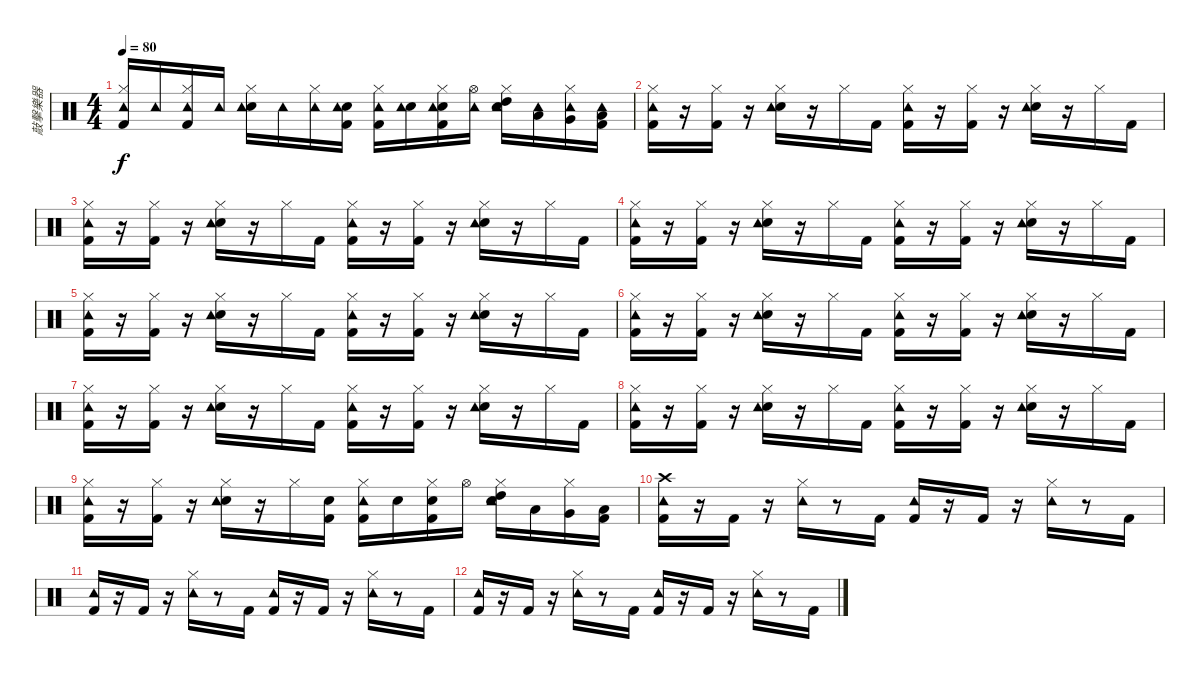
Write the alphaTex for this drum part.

\track ("敲擊樂器" "敲擊樂器") {instrument percussion}
\staff {score}
\articulation defaults
\ts (4 4)
\tempo 80
\clef neutral
\ks c
("Kick (hit) 2" "Hi-Hat (closed)" "Tambourine (hit)").16{dy f} "Tambourine (hit)".16 ("Kick (hit) 2" "Hi-Hat (closed)" "Tambourine (hit)").16 "Tambourine (hit)".16 ("Snare (hit) 2" "Hi-Hat (closed)" "Tambourine (hit)").16 "Tambourine (hit)".16 ("Hi-Hat (closed)" "Tambourine (hit)").16 ("Kick (hit) 2" "Snare (hit) 2" "Tambourine (hit)").16 ("Kick (hit) 2" "Hi-Hat (closed)" "Tambourine (hit)").16 ("Electric Snare (hit)" "Tambourine (hit)").16 ("Kick (hit) 2" "Electric Snare (hit)" "Hi-Hat (closed)" "Tambourine (hit)").16 ("Hi-Hat (open)" "Tambourine (hit)").16 ("High Tom (hit)" "Snare (hit) 2" "Hi-Hat (closed)" "Tambourine (hit)").16 ("Low Tom (hit)" "Tambourine (hit)").16 ("Very Low Tom (hit)" "Hi-Hat (closed)" "Tambourine (hit)").16 ("Kick (hit) 2" "Low Floor Tom (hit)" "Tambourine (hit)").16 |
("Kick (hit) 2" "Hi-Hat (closed)" "Tambourine (hit)").16 r.16 ("Kick (hit) 2" "Hi-Hat (closed)").16 r.16 ("Snare (hit) 2" "Hi-Hat (closed)" "Tambourine (hit)").16 r.16 "Hi-Hat (closed)".16 "Kick (hit) 2".16 ("Kick (hit) 2" "Hi-Hat (closed)" "Tambourine (hit)").16 r.16 ("Kick (hit) 2" "Hi-Hat (closed)").16 r.16 ("Snare (hit) 2" "Hi-Hat (closed)" "Tambourine (hit)").16 r.16 "Hi-Hat (closed)".16 "Kick (hit) 2".16 |
("Kick (hit) 2" "Hi-Hat (closed)" "Tambourine (hit)").16 r.16 ("Kick (hit) 2" "Hi-Hat (closed)").16 r.16 ("Snare (hit) 2" "Hi-Hat (closed)" "Tambourine (hit)").16 r.16 "Hi-Hat (closed)".16 "Kick (hit) 2".16 ("Kick (hit) 2" "Hi-Hat (closed)" "Tambourine (hit)").16 r.16 ("Kick (hit) 2" "Hi-Hat (closed)").16 r.16 ("Snare (hit) 2" "Hi-Hat (closed)" "Tambourine (hit)").16 r.16 "Hi-Hat (closed)".16 "Kick (hit) 2".16 |
("Kick (hit) 2" "Hi-Hat (closed)" "Tambourine (hit)").16 r.16 ("Kick (hit) 2" "Hi-Hat (closed)").16 r.16 ("Snare (hit) 2" "Hi-Hat (closed)" "Tambourine (hit)").16 r.16 "Hi-Hat (closed)".16 "Kick (hit) 2".16 ("Kick (hit) 2" "Hi-Hat (closed)" "Tambourine (hit)").16 r.16 ("Kick (hit) 2" "Hi-Hat (closed)").16 r.16 ("Snare (hit) 2" "Hi-Hat (closed)" "Tambourine (hit)").16 r.16 "Hi-Hat (closed)".16 "Kick (hit) 2".16 |
("Kick (hit) 2" "Hi-Hat (closed)" "Tambourine (hit)").16 r.16 ("Kick (hit) 2" "Hi-Hat (closed)").16 r.16 ("Snare (hit) 2" "Hi-Hat (closed)" "Tambourine (hit)").16 r.16 "Hi-Hat (closed)".16 "Kick (hit) 2".16 ("Kick (hit) 2" "Hi-Hat (closed)" "Tambourine (hit)").16 r.16 ("Kick (hit) 2" "Hi-Hat (closed)").16 r.16 ("Snare (hit) 2" "Hi-Hat (closed)" "Tambourine (hit)").16 r.16 "Hi-Hat (closed)".16 "Kick (hit) 2".16 |
("Kick (hit) 2" "Hi-Hat (closed)" "Tambourine (hit)").16 r.16 ("Kick (hit) 2" "Hi-Hat (closed)").16 r.16 ("Snare (hit) 2" "Hi-Hat (closed)" "Tambourine (hit)").16 r.16 "Hi-Hat (closed)".16 "Kick (hit) 2".16 ("Kick (hit) 2" "Hi-Hat (closed)" "Tambourine (hit)").16 r.16 ("Kick (hit) 2" "Hi-Hat (closed)").16 r.16 ("Snare (hit) 2" "Hi-Hat (closed)" "Tambourine (hit)").16 r.16 "Hi-Hat (closed)".16 "Kick (hit) 2".16 |
("Kick (hit) 2" "Hi-Hat (closed)" "Tambourine (hit)").16 r.16 ("Kick (hit) 2" "Hi-Hat (closed)").16 r.16 ("Snare (hit) 2" "Hi-Hat (closed)" "Tambourine (hit)").16 r.16 "Hi-Hat (closed)".16 "Kick (hit) 2".16 ("Kick (hit) 2" "Hi-Hat (closed)" "Tambourine (hit)").16 r.16 ("Kick (hit) 2" "Hi-Hat (closed)").16 r.16 ("Snare (hit) 2" "Hi-Hat (closed)" "Tambourine (hit)").16 r.16 "Hi-Hat (closed)".16 "Kick (hit) 2".16 |
("Kick (hit) 2" "Hi-Hat (closed)" "Tambourine (hit)").16 r.16 ("Kick (hit) 2" "Hi-Hat (closed)").16 r.16 ("Snare (hit) 2" "Hi-Hat (closed)" "Tambourine (hit)").16 r.16 "Hi-Hat (closed)".16 "Kick (hit) 2".16 ("Kick (hit) 2" "Hi-Hat (closed)" "Tambourine (hit)").16 r.16 ("Kick (hit) 2" "Hi-Hat (closed)").16 r.16 ("Snare (hit) 2" "Hi-Hat (closed)" "Tambourine (hit)").16 r.16 "Hi-Hat (closed)".16 "Kick (hit) 2".16 |
("Kick (hit) 2" "Hi-Hat (closed)" "Tambourine (hit)").16 r.16 ("Kick (hit) 2" "Hi-Hat (closed)").16 r.16 ("Snare (hit) 2" "Hi-Hat (closed)" "Tambourine (hit)").16 r.16 "Hi-Hat (closed)".16 ("Kick (hit) 2" "Snare (hit) 2").16 ("Kick (hit) 2" "Hi-Hat (closed)" "Tambourine (hit)").16 "Electric Snare (hit)".16 ("Kick (hit) 2" "Electric Snare (hit)" "Hi-Hat (closed)").16 "Hi-Hat (open)".16 ("High Tom (hit)" "Snare (hit) 2" "Hi-Hat (closed)" "Tambourine (hit)").16 "Low Tom (hit)".16 ("Very Low Tom (hit)" "Hi-Hat (closed)").16 ("Kick (hit) 2" "Low Floor Tom (hit)").16 |
("Kick (hit) 2" "Crash high (hit)" "Tambourine (hit)").16 r.16 "Kick (hit) 2".16 r.16 ("Hi-Hat (closed)" "Tambourine (hit)").16 r.8 "Kick (hit) 2".16 ("Kick (hit) 2" "Tambourine (hit)").16 r.16 "Kick (hit) 2".16 r.16 ("Hi-Hat (closed)" "Tambourine (hit)").16 r.8 "Kick (hit) 2".16 |
("Kick (hit) 2" "Tambourine (hit)").16 r.16 "Kick (hit) 2".16 r.16 ("Hi-Hat (closed)" "Tambourine (hit)").16 r.8 "Kick (hit) 2".16 ("Kick (hit) 2" "Tambourine (hit)").16 r.16 "Kick (hit) 2".16 r.16 ("Hi-Hat (closed)" "Tambourine (hit)").16 r.8 "Kick (hit) 2".16 |
("Kick (hit) 2" "Tambourine (hit)").16 r.16 "Kick (hit) 2".16 r.16 ("Hi-Hat (closed)" "Tambourine (hit)").16 r.8 "Kick (hit) 2".16 ("Kick (hit) 2" "Tambourine (hit)").16 r.16 "Kick (hit) 2".16 r.16 ("Hi-Hat (closed)" "Tambourine (hit)").16 r.8 "Kick (hit) 2".16
